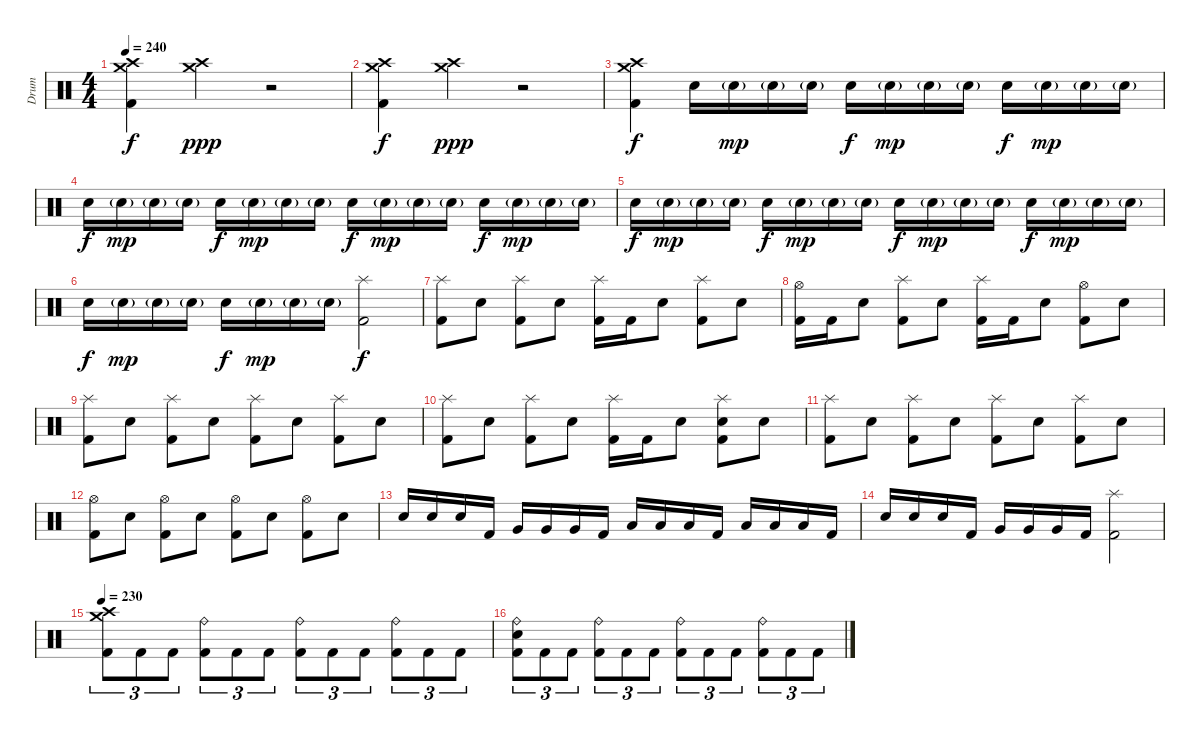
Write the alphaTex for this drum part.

\track ("Drum" "Drum") {instrument percussion}
\staff {score}
\articulation defaults
\ts (4 4)
\tempo 240
\clef neutral
\ks c
("Crash medium (hit)" "Crash high (hit)" "Kick (hit) 2").4{dy f} ("Crash medium (hit)" "Crash high (hit)").4{dy ppp} r.2 |
("Crash medium (hit)" "Crash high (hit)" "Kick (hit) 2").4{dy f} ("Crash medium (hit)" "Crash high (hit)").4{dy ppp} r.2 |
("Crash medium (hit)" "Crash high (hit)" "Kick (hit) 2").4{dy f} "Electric Snare (hit)".16 "Electric Snare (hit)"{g}.16{dy mp} "Electric Snare (hit)"{g}.16 "Electric Snare (hit)"{g}.16 "Electric Snare (hit)".16{dy f} "Electric Snare (hit)"{g}.16{dy mp} "Electric Snare (hit)"{g}.16 "Electric Snare (hit)"{g}.16 "Electric Snare (hit)".16{dy f} "Electric Snare (hit)"{g}.16{dy mp} "Electric Snare (hit)"{g}.16 "Electric Snare (hit)"{g}.16 |
"Electric Snare (hit)".16{dy f} "Electric Snare (hit)"{g}.16{dy mp} "Electric Snare (hit)"{g}.16 "Electric Snare (hit)"{g}.16 "Electric Snare (hit)".16{dy f} "Electric Snare (hit)"{g}.16{dy mp} "Electric Snare (hit)"{g}.16 "Electric Snare (hit)"{g}.16 "Electric Snare (hit)".16{dy f} "Electric Snare (hit)"{g}.16{dy mp} "Electric Snare (hit)"{g}.16 "Electric Snare (hit)"{g}.16 "Electric Snare (hit)".16{dy f} "Electric Snare (hit)"{g}.16{dy mp} "Electric Snare (hit)"{g}.16 "Electric Snare (hit)"{g}.16 |
"Electric Snare (hit)".16{dy f} "Electric Snare (hit)"{g}.16{dy mp} "Electric Snare (hit)"{g}.16 "Electric Snare (hit)"{g}.16 "Electric Snare (hit)".16{dy f} "Electric Snare (hit)"{g}.16{dy mp} "Electric Snare (hit)"{g}.16 "Electric Snare (hit)"{g}.16 "Electric Snare (hit)".16{dy f} "Electric Snare (hit)"{g}.16{dy mp} "Electric Snare (hit)"{g}.16 "Electric Snare (hit)"{g}.16 "Electric Snare (hit)".16{dy f} "Electric Snare (hit)"{g}.16{dy mp} "Electric Snare (hit)"{g}.16 "Electric Snare (hit)"{g}.16 |
"Electric Snare (hit)".16{dy f} "Electric Snare (hit)"{g}.16{dy mp} "Electric Snare (hit)"{g}.16 "Electric Snare (hit)"{g}.16 "Electric Snare (hit)".16{dy f} "Electric Snare (hit)"{g}.16{dy mp} "Electric Snare (hit)"{g}.16 "Electric Snare (hit)"{g}.16 ("Splash (hit)" "Kick (hit) 2").2{dy f} |
("Splash (hit)" "Kick (hit) 2").8 "Electric Snare (hit)".8 ("Splash (hit)" "Kick (hit) 2").8 "Electric Snare (hit)".8 ("Splash (hit)" "Kick (hit) 2").16 "Kick (hit) 2".16 "Electric Snare (hit)".8 ("Splash (hit)" "Kick (hit) 2").8 "Electric Snare (hit)".8 |
("Hi-Hat (open)" "Kick (hit) 2").16 "Kick (hit) 2".16 "Electric Snare (hit)".8 ("Splash (hit)" "Kick (hit) 2").8 "Electric Snare (hit)".8 ("Splash (hit)" "Kick (hit) 2").16 "Kick (hit) 2".16 "Electric Snare (hit)".8 ("Hi-Hat (open)" "Kick (hit) 2").8 "Electric Snare (hit)".8 |
("Splash (hit)" "Kick (hit) 2").8 "Electric Snare (hit)".8 ("Splash (hit)" "Kick (hit) 2").8 "Electric Snare (hit)".8 ("Splash (hit)" "Kick (hit) 2").8 "Electric Snare (hit)".8 ("Splash (hit)" "Kick (hit) 2").8 "Electric Snare (hit)".8 |
("Splash (hit)" "Kick (hit) 2").8 "Electric Snare (hit)".8 ("Splash (hit)" "Kick (hit) 2").8 "Electric Snare (hit)".8 ("Splash (hit)" "Kick (hit) 2").16 "Kick (hit) 2".16 "Electric Snare (hit)".8 ("Splash (hit)" "Electric Snare (hit)" "Kick (hit) 2").8 "Electric Snare (hit)".8 |
("Splash (hit)" "Kick (hit) 2").8 "Electric Snare (hit)".8 ("Splash (hit)" "Kick (hit) 2").8 "Electric Snare (hit)".8 ("Splash (hit)" "Kick (hit) 2").8 "Electric Snare (hit)".8 ("Splash (hit)" "Kick (hit) 2").8 "Electric Snare (hit)".8 |
("Hi-Hat (open)" "Kick (hit) 2").8 "Electric Snare (hit)".8 ("Hi-Hat (open)" "Kick (hit) 2").8 "Electric Snare (hit)".8 ("Hi-Hat (open)" "Kick (hit) 2").8 "Electric Snare (hit)".8 ("Hi-Hat (open)" "Kick (hit) 2").8 "Electric Snare (hit)".8 |
"Electric Snare (hit)".16 "Electric Snare (hit)".16 "Electric Snare (hit)".16 "Kick (hit) 2".16 "Very Low Tom (hit)".16 "Very Low Tom (hit)".16 "Very Low Tom (hit)".16 "Kick (hit) 2".16 "Low Floor Tom (hit)".16 "Low Floor Tom (hit)".16 "Low Floor Tom (hit)".16 "Kick (hit) 2".16 "Low Tom (hit)".16 "Low Tom (hit)".16 "Low Tom (hit)".16 "Kick (hit) 2".16 |
"Electric Snare (hit)".16 "Electric Snare (hit)".16 "Electric Snare (hit)".16 "Kick (hit) 2".16 "Very Low Tom (hit)".16 "Very Low Tom (hit)".16 "Very Low Tom (hit)".16 "Kick (hit) 2".16 ("Splash (hit)" "Kick (hit) 2").2 |
\tempo 230
("Crash medium (hit)" "Crash high (hit)" "Kick (hit) 2").8{tu (3 2)} "Kick (hit) 2".8{tu (3 2)} "Kick (hit) 2".8{tu (3 2)} ("Ride (bell)" "Kick (hit) 2").8{tu (3 2)} "Kick (hit) 2".8{tu (3 2)} "Kick (hit) 2".8{tu (3 2)} ("Ride (bell)" "Kick (hit) 2").8{tu (3 2)} "Kick (hit) 2".8{tu (3 2)} "Kick (hit) 2".8{tu (3 2)} ("Ride (bell)" "Kick (hit) 2").8{tu (3 2)} "Kick (hit) 2".8{tu (3 2)} "Kick (hit) 2".8{tu (3 2)} |
("Ride (bell)" "Electric Snare (hit)" "Kick (hit) 2").8{tu (3 2)} "Kick (hit) 2".8{tu (3 2)} "Kick (hit) 2".8{tu (3 2)} ("Ride (bell)" "Kick (hit) 2").8{tu (3 2)} "Kick (hit) 2".8{tu (3 2)} "Kick (hit) 2".8{tu (3 2)} ("Ride (bell)" "Kick (hit) 2").8{tu (3 2)} "Kick (hit) 2".8{tu (3 2)} "Kick (hit) 2".8{tu (3 2)} ("Ride (bell)" "Kick (hit) 2").8{tu (3 2)} "Kick (hit) 2".8{tu (3 2)} "Kick (hit) 2".8{tu (3 2)}
